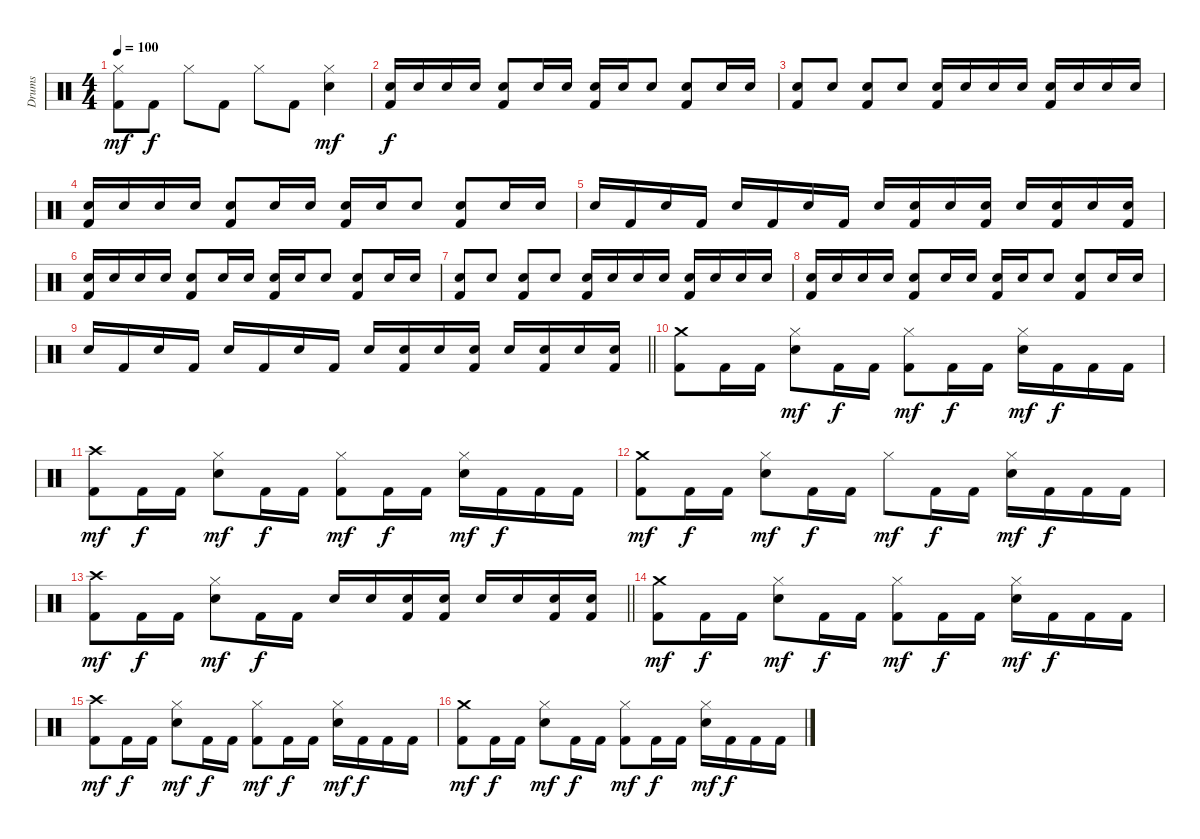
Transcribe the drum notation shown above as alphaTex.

\track ("Drums" "Drums") {instrument percussion}
\staff {score}
\articulation defaults
\ts (4 4)
\tempo 100
\clef neutral
\ks c
("Hi-Hat (closed)" "Kick (hit) 2").8{dy mf} "Kick (hit) 2".8{dy f} "Hi-Hat (closed)".8 "Kick (hit) 2".8 "Hi-Hat (closed)".8 "Kick (hit) 2".8 ("Hi-Hat (closed)" "Snare (hit) 2").4{dy mf} |
("Snare (hit) 2" "Kick (hit) 2").16{dy f} "Snare (hit) 2".16 "Snare (hit) 2".16 "Snare (hit) 2".16 ("Snare (hit) 2" "Kick (hit) 2").8 "Snare (hit) 2".16 "Snare (hit) 2".16 ("Snare (hit) 2" "Kick (hit) 2").16 "Snare (hit) 2".16 "Snare (hit) 2".8 ("Snare (hit) 2" "Kick (hit) 2").8 "Snare (hit) 2".16 "Snare (hit) 2".16 |
("Snare (hit) 2" "Kick (hit) 2").8 "Snare (hit) 2".8 ("Snare (hit) 2" "Kick (hit) 2").8 "Snare (hit) 2".8 ("Snare (hit) 2" "Kick (hit) 2").16 "Snare (hit) 2".16 "Snare (hit) 2".16 "Snare (hit) 2".16 ("Snare (hit) 2" "Kick (hit) 2").16 "Snare (hit) 2".16 "Snare (hit) 2".16 "Snare (hit) 2".16 |
("Snare (hit) 2" "Kick (hit) 2").16 "Snare (hit) 2".16 "Snare (hit) 2".16 "Snare (hit) 2".16 ("Snare (hit) 2" "Kick (hit) 2").8 "Snare (hit) 2".16 "Snare (hit) 2".16 ("Snare (hit) 2" "Kick (hit) 2").16 "Snare (hit) 2".16 "Snare (hit) 2".8 ("Snare (hit) 2" "Kick (hit) 2").8 "Snare (hit) 2".16 "Snare (hit) 2".16 |
"Snare (hit) 2".16 "Kick (hit) 2".16 "Snare (hit) 2".16 "Kick (hit) 2".16 "Snare (hit) 2".16 "Kick (hit) 2".16 "Snare (hit) 2".16 "Kick (hit) 2".16 "Snare (hit) 2".16 ("Snare (hit) 2" "Kick (hit) 2").16 "Snare (hit) 2".16 ("Snare (hit) 2" "Kick (hit) 2").16 "Snare (hit) 2".16 ("Snare (hit) 2" "Kick (hit) 2").16 "Snare (hit) 2".16 ("Snare (hit) 2" "Kick (hit) 2").16 |
("Snare (hit) 2" "Kick (hit) 2").16 "Snare (hit) 2".16 "Snare (hit) 2".16 "Snare (hit) 2".16 ("Snare (hit) 2" "Kick (hit) 2").8 "Snare (hit) 2".16 "Snare (hit) 2".16 ("Snare (hit) 2" "Kick (hit) 2").16 "Snare (hit) 2".16 "Snare (hit) 2".8 ("Snare (hit) 2" "Kick (hit) 2").8 "Snare (hit) 2".16 "Snare (hit) 2".16 |
("Snare (hit) 2" "Kick (hit) 2").8 "Snare (hit) 2".8 ("Snare (hit) 2" "Kick (hit) 2").8 "Snare (hit) 2".8 ("Snare (hit) 2" "Kick (hit) 2").16 "Snare (hit) 2".16 "Snare (hit) 2".16 "Snare (hit) 2".16 ("Snare (hit) 2" "Kick (hit) 2").16 "Snare (hit) 2".16 "Snare (hit) 2".16 "Snare (hit) 2".16 |
("Snare (hit) 2" "Kick (hit) 2").16 "Snare (hit) 2".16 "Snare (hit) 2".16 "Snare (hit) 2".16 ("Snare (hit) 2" "Kick (hit) 2").8 "Snare (hit) 2".16 "Snare (hit) 2".16 ("Snare (hit) 2" "Kick (hit) 2").16 "Snare (hit) 2".16 "Snare (hit) 2".8 ("Snare (hit) 2" "Kick (hit) 2").8 "Snare (hit) 2".16 "Snare (hit) 2".16 |
\barLineRight lightlight "Snare (hit) 2".16 "Kick (hit) 2".16 "Snare (hit) 2".16 "Kick (hit) 2".16 "Snare (hit) 2".16 "Kick (hit) 2".16 "Snare (hit) 2".16 "Kick (hit) 2".16 "Snare (hit) 2".16
("Snare (hit) 2" "Kick (hit) 2").16 "Snare (hit) 2".16 ("Snare (hit) 2" "Kick (hit) 2").16 "Snare (hit) 2".16 ("Snare (hit) 2" "Kick (hit) 2").16 "Snare (hit) 2".16 ("Snare (hit) 2" "Kick (hit) 2").16 |
("Crash medium (hit)" "Kick (hit) 2").8 "Kick (hit) 2".16 "Kick (hit) 2".16 ("Hi-Hat (closed)" "Snare (hit) 2").8{dy mf} "Kick (hit) 2".16{dy f} "Kick (hit) 2".16 ("Hi-Hat (closed)" "Kick (hit) 2").8{dy mf} "Kick (hit) 2".16{dy f} "Kick (hit) 2".16 ("Hi-Hat (closed)" "Snare (hit) 2").16{dy mf} "Kick (hit) 2".16{dy f} "Kick (hit) 2".16 "Kick (hit) 2".16 |
("Crash high (hit)" "Kick (hit) 2").8{dy mf} "Kick (hit) 2".16{dy f} "Kick (hit) 2".16 ("Hi-Hat (closed)" "Snare (hit) 2").8{dy mf} "Kick (hit) 2".16{dy f} "Kick (hit) 2".16 ("Hi-Hat (closed)" "Kick (hit) 2").8{dy mf} "Kick (hit) 2".16{dy f} "Kick (hit) 2".16 ("Hi-Hat (closed)" "Snare (hit) 2").16{dy mf} "Kick (hit) 2".16{dy f} "Kick (hit) 2".16 "Kick (hit) 2".16 |
("Crash medium (hit)" "Kick (hit) 2").8{dy mf} "Kick (hit) 2".16{dy f} "Kick (hit) 2".16 ("Hi-Hat (closed)" "Snare (hit) 2").8{dy mf} "Kick (hit) 2".16{dy f} "Kick (hit) 2".16 "Hi-Hat (closed)".8{dy mf} "Kick (hit) 2".16{dy f} "Kick (hit) 2".16 ("Hi-Hat (closed)" "Snare (hit) 2").16{dy mf} "Kick (hit) 2".16{dy f} "Kick (hit) 2".16 "Kick (hit) 2".16 |
\barLineRight lightlight
("Crash high (hit)" "Kick (hit) 2").8{dy mf} "Kick (hit) 2".16{dy f} "Kick (hit) 2".16 ("Hi-Hat (closed)" "Snare (hit) 2").8{dy mf} "Kick (hit) 2".16{dy f} "Kick (hit) 2".16 "Snare (hit) 2".16 "Snare (hit) 2".16 ("Snare (hit) 2" "Kick (hit) 2").16 ("Snare (hit) 2" "Kick (hit) 2").16 "Snare (hit) 2".16 "Snare (hit) 2".16 ("Snare (hit) 2" "Kick (hit) 2").16 ("Snare (hit) 2" "Kick (hit) 2").16 |
("Crash medium (hit)" "Kick (hit) 2").8{dy mf} "Kick (hit) 2".16{dy f} "Kick (hit) 2".16 ("Hi-Hat (closed)" "Snare (hit) 2").8{dy mf} "Kick (hit) 2".16{dy f} "Kick (hit) 2".16 ("Hi-Hat (closed)" "Kick (hit) 2").8{dy mf} "Kick (hit) 2".16{dy f} "Kick (hit) 2".16 ("Hi-Hat (closed)" "Snare (hit) 2").16{dy mf} "Kick (hit) 2".16{dy f} "Kick (hit) 2".16 "Kick (hit) 2".16 |
("Crash high (hit)" "Kick (hit) 2").8{dy mf} "Kick (hit) 2".16{dy f} "Kick (hit) 2".16 ("Hi-Hat (closed)" "Snare (hit) 2").8{dy mf} "Kick (hit) 2".16{dy f} "Kick (hit) 2".16 ("Hi-Hat (closed)" "Kick (hit) 2").8{dy mf} "Kick (hit) 2".16{dy f} "Kick (hit) 2".16 ("Hi-Hat (closed)" "Snare (hit) 2").16{dy mf} "Kick (hit) 2".16{dy f} "Kick (hit) 2".16 "Kick (hit) 2".16 |
("Crash medium (hit)" "Kick (hit) 2").8{dy mf} "Kick (hit) 2".16{dy f} "Kick (hit) 2".16 ("Hi-Hat (closed)" "Snare (hit) 2").8{dy mf} "Kick (hit) 2".16{dy f} "Kick (hit) 2".16 ("Hi-Hat (closed)" "Kick (hit) 2").8{dy mf} "Kick (hit) 2".16{dy f} "Kick (hit) 2".16 ("Hi-Hat (closed)" "Snare (hit) 2").16{dy mf} "Kick (hit) 2".16{dy f} "Kick (hit) 2".16 "Kick (hit) 2".16
